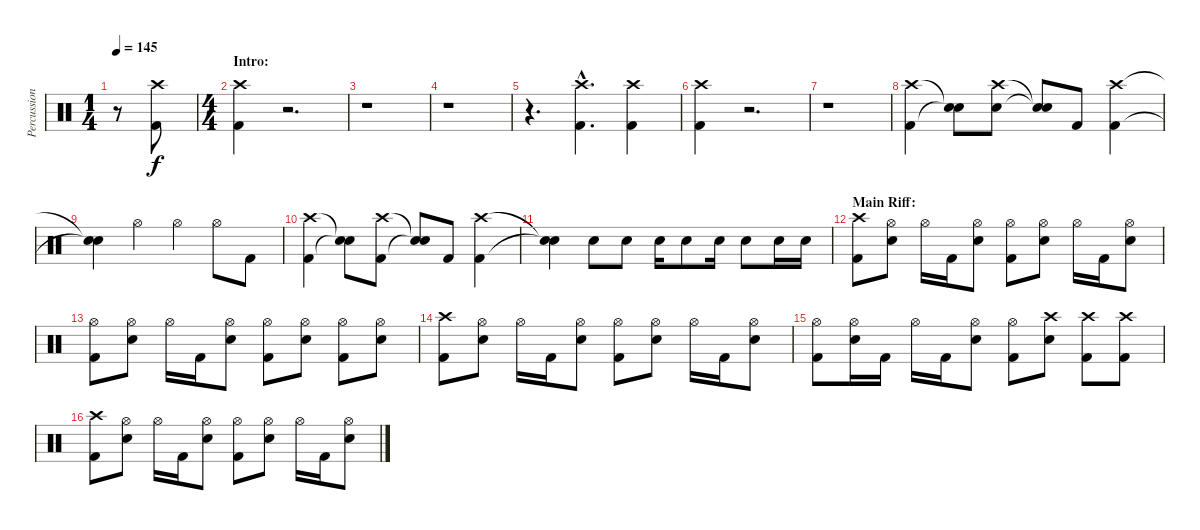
\track ("Percussion" "Percussion") {instrument percussion}
\staff {score}
\articulation defaults
\ts (1 4)
\tempo 145
\clef neutral
\ks c
r.8{dy f} ("Crash high (hit)" "Kick (hit) 2").8 |
\ts (4 4)
\section ("" "Intro:")
("Crash high (hit)" "Kick (hit) 2").4 r.2{d} |
r.1 |
r.1 |
r.4{d} ("Crash high (hit)"{hac} "Kick (hit) 2"{hac}).4{d} ("Crash high (hit)" "Kick (hit) 2").4 |
("Crash high (hit)" "Kick (hit) 2").4 r.2{d} |
r.1 |
("Crash high (hit)" "Kick (hit) 2").4 ("Snare (hit)"{t} "Snare (hit)"{t}).8 ("Crash high (hit)" "Electric Snare (hit)").8 ("Snare (hit)"{t} "Snare (hit)"{t}).8 "Kick (hit) 2".8 ("Crash high (hit)" "Kick (hit) 2").4 |
("Snare (hit)"{t} "Snare (hit)"{t}).4 "Hi-Hat (open)".4 "Hi-Hat (open)".4 "Hi-Hat (open)".8 "Kick (hit) 2".8 |
("Crash high (hit)" "Kick (hit) 2").4 ("Snare (hit)"{t} "Snare (hit)"{t}).8 ("Crash high (hit)" "Kick (hit) 2").8 ("Snare (hit)"{t} "Snare (hit)"{t}).8 "Kick (hit) 2".8 ("Crash high (hit)" "Kick (hit) 2").4 |
("Snare (hit)"{t} "Snare (hit)"{t}).4 "Electric Snare (hit)".8 "Electric Snare (hit)".8 "Electric Snare (hit)".16 "Electric Snare (hit)".8 "Electric Snare (hit)".16 "Electric Snare (hit)".8 "Electric Snare (hit)".16 "Electric Snare (hit)".16 |
\section ("" "Main Riff:")
("Crash high (hit)" "Kick (hit) 2").8 ("Hi-Hat (open)" "Electric Snare (hit)").8 "Hi-Hat (open)".16 "Kick (hit) 2".16 ("Hi-Hat (open)" "Electric Snare (hit)").8 ("Hi-Hat (open)" "Kick (hit) 2").8 ("Hi-Hat (open)" "Electric Snare (hit)").8 "Hi-Hat (open)".16 "Kick (hit) 2".16 ("Hi-Hat (open)" "Electric Snare (hit)").8 |
("Hi-Hat (open)" "Kick (hit) 2").8 ("Hi-Hat (open)" "Electric Snare (hit)").8 "Hi-Hat (open)".16 "Kick (hit) 2".16 ("Hi-Hat (open)" "Electric Snare (hit)").8 ("Hi-Hat (open)" "Kick (hit) 2").8 ("Hi-Hat (open)" "Electric Snare (hit)").8 ("Hi-Hat (open)" "Kick (hit) 2").8 ("Hi-Hat (open)" "Electric Snare (hit)").8 |
("Crash high (hit)" "Kick (hit) 2").8 ("Hi-Hat (open)" "Electric Snare (hit)").8 "Hi-Hat (open)".16 "Kick (hit) 2".16 ("Hi-Hat (open)" "Electric Snare (hit)").8 ("Hi-Hat (open)" "Kick (hit) 2").8 ("Hi-Hat (open)" "Electric Snare (hit)").8 "Hi-Hat (open)".16 "Kick (hit) 2".16 ("Hi-Hat (open)" "Electric Snare (hit)").8 |
("Hi-Hat (open)" "Kick (hit) 2").8 ("Hi-Hat (open)" "Electric Snare (hit)").16 "Kick (hit) 2".16 "Hi-Hat (open)".16 "Kick (hit) 2".16 ("Hi-Hat (open)" "Electric Snare (hit)").8 ("Hi-Hat (open)" "Kick (hit) 2").8 ("Crash high (hit)" "Electric Snare (hit)").8 ("Crash high (hit)" "Kick (hit) 2").8 ("Crash high (hit)" "Kick (hit) 2").8 |
("Crash high (hit)" "Kick (hit) 2").8 ("Hi-Hat (open)" "Electric Snare (hit)").8 "Hi-Hat (open)".16 "Kick (hit) 2".16 ("Hi-Hat (open)" "Electric Snare (hit)").8 ("Hi-Hat (open)" "Kick (hit) 2").8 ("Hi-Hat (open)" "Electric Snare (hit)").8 "Hi-Hat (open)".16 "Kick (hit) 2".16 ("Hi-Hat (open)" "Electric Snare (hit)").8
